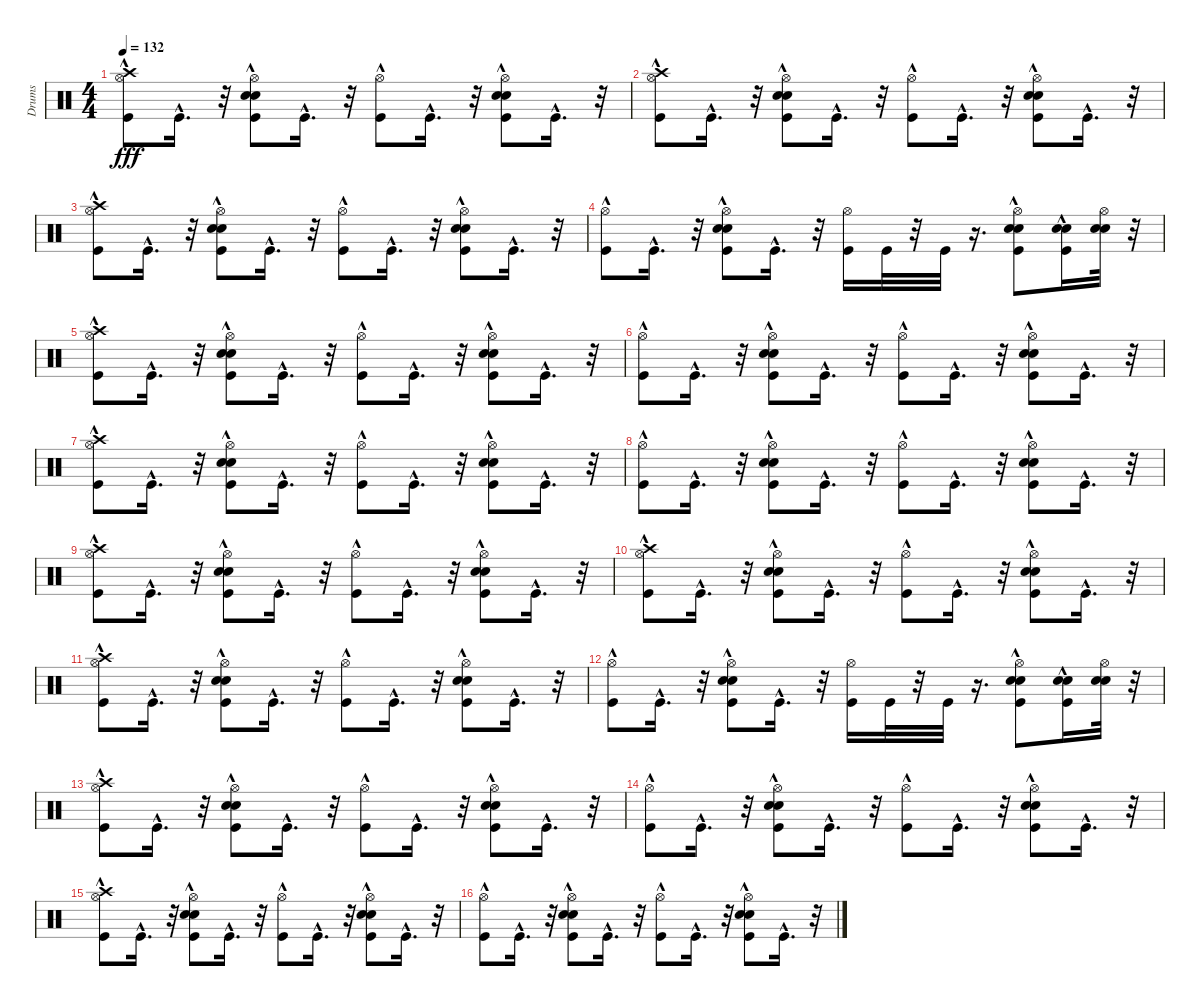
\track ("Drums" "Drums") {instrument percussion}
\staff {score}
\articulation defaults
\ts (4 4)
\tempo 132
\clef neutral
\ks c
("Hi-Hat (open)" "Kick (hit)"{hac} "Crash high (hit)").8{dy fff} "Kick (hit)"{hac}.16{d} r.32 ("Hi-Hat (open)" "Kick (hit)"{hac} "Snare (hit) 2"{hac} "Electric Snare (hit)"{hac}).8 "Kick (hit)"{hac}.16{d} r.32 ("Hi-Hat (open)" "Kick (hit)"{hac}).8 "Kick (hit)"{hac}.16{d} r.32 ("Hi-Hat (open)" "Kick (hit)"{hac} "Snare (hit) 2"{hac} "Electric Snare (hit)"{hac}).8 "Kick (hit)"{hac}.16{d} r.32 |
("Hi-Hat (open)" "Kick (hit)"{hac} "Crash high (hit)"{hac}).8 "Kick (hit)"{hac}.16{d} r.32 ("Hi-Hat (open)" "Kick (hit)"{hac} "Snare (hit) 2"{hac} "Electric Snare (hit)"{hac}).8 "Kick (hit)"{hac}.16{d} r.32 ("Hi-Hat (open)" "Kick (hit)"{hac}).8 "Kick (hit)"{hac}.16{d} r.32 ("Hi-Hat (open)" "Kick (hit)"{hac} "Snare (hit) 2"{hac} "Electric Snare (hit)"{hac}).8 "Kick (hit)"{hac}.16{d} r.32 |
("Hi-Hat (open)" "Kick (hit)"{hac} "Crash high (hit)"{hac}).8 "Kick (hit)"{hac}.16{d} r.32 ("Hi-Hat (open)" "Kick (hit)"{hac} "Snare (hit) 2"{hac} "Electric Snare (hit)"{hac}).8 "Kick (hit)"{hac}.16{d} r.32 ("Hi-Hat (open)" "Kick (hit)"{hac}).8 "Kick (hit)"{hac}.16{d} r.32 ("Hi-Hat (open)" "Kick (hit)"{hac} "Snare (hit) 2"{hac} "Electric Snare (hit)"{hac}).8 "Kick (hit)"{hac}.16{d} r.32 |
("Hi-Hat (open)" "Kick (hit)"{hac}).8 "Kick (hit)"{hac}.16{d} r.32 ("Hi-Hat (open)" "Kick (hit)"{hac} "Snare (hit) 2"{hac} "Electric Snare (hit)"{hac}).8 "Kick (hit)"{hac}.16{d} r.32 ("Hi-Hat (open)" "Kick (hit)").16 "Kick (hit)".32 r.32 "Kick (hit)".32 r.16{d} ("Hi-Hat (open)" "Kick (hit)"{hac} "Snare (hit) 2"{hac} "Electric Snare (hit)"{hac}).8 ("Kick (hit)"{hac} "Snare (hit) 2" "Electric Snare (hit)").16 ("Snare (hit) 2" "Electric Snare (hit)" "Hi-Hat (open)").32 r.32 |
("Hi-Hat (open)" "Kick (hit)"{hac} "Crash high (hit)"{hac}).8 "Kick (hit)"{hac}.16{d} r.32 ("Hi-Hat (open)" "Kick (hit)"{hac} "Snare (hit) 2"{hac} "Electric Snare (hit)"{hac}).8 "Kick (hit)"{hac}.16{d} r.32 ("Hi-Hat (open)" "Kick (hit)"{hac}).8 "Kick (hit)"{hac}.16{d} r.32 ("Hi-Hat (open)" "Kick (hit)"{hac} "Snare (hit) 2"{hac} "Electric Snare (hit)"{hac}).8 "Kick (hit)"{hac}.16{d} r.32 |
("Hi-Hat (open)" "Kick (hit)"{hac}).8 "Kick (hit)"{hac}.16{d} r.32 ("Hi-Hat (open)" "Kick (hit)"{hac} "Snare (hit) 2"{hac} "Electric Snare (hit)"{hac}).8 "Kick (hit)"{hac}.16{d} r.32 ("Hi-Hat (open)" "Kick (hit)"{hac}).8 "Kick (hit)"{hac}.16{d} r.32 ("Hi-Hat (open)" "Kick (hit)"{hac} "Snare (hit) 2"{hac} "Electric Snare (hit)"{hac}).8 "Kick (hit)"{hac}.16{d} r.32 |
("Hi-Hat (open)" "Kick (hit)"{hac} "Crash high (hit)"{hac}).8 "Kick (hit)"{hac}.16{d} r.32 ("Hi-Hat (open)" "Kick (hit)"{hac} "Snare (hit) 2"{hac} "Electric Snare (hit)"{hac}).8 "Kick (hit)"{hac}.16{d} r.32 ("Hi-Hat (open)" "Kick (hit)"{hac}).8 "Kick (hit)"{hac}.16{d} r.32 ("Hi-Hat (open)" "Kick (hit)"{hac} "Snare (hit) 2"{hac} "Electric Snare (hit)"{hac}).8 "Kick (hit)"{hac}.16{d} r.32 |
("Hi-Hat (open)" "Kick (hit)"{hac}).8 "Kick (hit)"{hac}.16{d} r.32 ("Hi-Hat (open)" "Kick (hit)"{hac} "Snare (hit) 2"{hac} "Electric Snare (hit)"{hac}).8 "Kick (hit)"{hac}.16{d} r.32 ("Hi-Hat (open)" "Kick (hit)"{hac}).8 "Kick (hit)"{hac}.16{d} r.32 ("Hi-Hat (open)" "Kick (hit)"{hac} "Snare (hit) 2"{hac} "Electric Snare (hit)"{hac}).8 "Kick (hit)"{hac}.16{d} r.32 |
("Hi-Hat (open)" "Kick (hit)"{hac} "Crash high (hit)").8 "Kick (hit)"{hac}.16{d} r.32 ("Hi-Hat (open)" "Kick (hit)"{hac} "Snare (hit) 2"{hac} "Electric Snare (hit)"{hac}).8 "Kick (hit)"{hac}.16{d} r.32 ("Hi-Hat (open)" "Kick (hit)"{hac}).8 "Kick (hit)"{hac}.16{d} r.32 ("Hi-Hat (open)" "Kick (hit)"{hac} "Snare (hit) 2"{hac} "Electric Snare (hit)"{hac}).8 "Kick (hit)"{hac}.16{d} r.32 |
("Hi-Hat (open)" "Kick (hit)"{hac} "Crash high (hit)"{hac}).8 "Kick (hit)"{hac}.16{d} r.32 ("Hi-Hat (open)" "Kick (hit)"{hac} "Snare (hit) 2"{hac} "Electric Snare (hit)"{hac}).8 "Kick (hit)"{hac}.16{d} r.32 ("Hi-Hat (open)" "Kick (hit)"{hac}).8 "Kick (hit)"{hac}.16{d} r.32 ("Hi-Hat (open)" "Kick (hit)"{hac} "Snare (hit) 2"{hac} "Electric Snare (hit)"{hac}).8 "Kick (hit)"{hac}.16{d} r.32 |
("Hi-Hat (open)" "Kick (hit)"{hac} "Crash high (hit)"{hac}).8 "Kick (hit)"{hac}.16{d} r.32 ("Hi-Hat (open)" "Kick (hit)"{hac} "Snare (hit) 2"{hac} "Electric Snare (hit)"{hac}).8 "Kick (hit)"{hac}.16{d} r.32 ("Hi-Hat (open)" "Kick (hit)"{hac}).8 "Kick (hit)"{hac}.16{d} r.32 ("Hi-Hat (open)" "Kick (hit)"{hac} "Snare (hit) 2"{hac} "Electric Snare (hit)"{hac}).8 "Kick (hit)"{hac}.16{d} r.32 |
("Hi-Hat (open)" "Kick (hit)"{hac}).8 "Kick (hit)"{hac}.16{d} r.32 ("Hi-Hat (open)" "Kick (hit)"{hac} "Snare (hit) 2"{hac} "Electric Snare (hit)"{hac}).8 "Kick (hit)"{hac}.16{d} r.32 ("Hi-Hat (open)" "Kick (hit)").16 "Kick (hit)".32 r.32 "Kick (hit)".32 r.16{d} ("Hi-Hat (open)" "Kick (hit)"{hac} "Snare (hit) 2"{hac} "Electric Snare (hit)"{hac}).8 ("Kick (hit)"{hac} "Snare (hit) 2" "Electric Snare (hit)").16 ("Snare (hit) 2" "Electric Snare (hit)" "Hi-Hat (open)").32 r.32 |
("Hi-Hat (open)" "Kick (hit)"{hac} "Crash high (hit)"{hac}).8 "Kick (hit)"{hac}.16{d} r.32 ("Hi-Hat (open)" "Kick (hit)"{hac} "Snare (hit) 2"{hac} "Electric Snare (hit)"{hac}).8 "Kick (hit)"{hac}.16{d} r.32 ("Hi-Hat (open)" "Kick (hit)"{hac}).8 "Kick (hit)"{hac}.16{d} r.32 ("Hi-Hat (open)" "Kick (hit)"{hac} "Snare (hit) 2"{hac} "Electric Snare (hit)"{hac}).8 "Kick (hit)"{hac}.16{d} r.32 |
("Hi-Hat (open)" "Kick (hit)"{hac}).8 "Kick (hit)"{hac}.16{d} r.32 ("Hi-Hat (open)" "Kick (hit)"{hac} "Snare (hit) 2"{hac} "Electric Snare (hit)"{hac}).8 "Kick (hit)"{hac}.16{d} r.32 ("Hi-Hat (open)" "Kick (hit)"{hac}).8 "Kick (hit)"{hac}.16{d} r.32 ("Hi-Hat (open)" "Kick (hit)"{hac} "Snare (hit) 2"{hac} "Electric Snare (hit)"{hac}).8 "Kick (hit)"{hac}.16{d} r.32 |
("Hi-Hat (open)" "Kick (hit)"{hac} "Crash high (hit)"{hac}).8 "Kick (hit)"{hac}.16{d} r.32 ("Hi-Hat (open)" "Kick (hit)"{hac} "Snare (hit) 2"{hac} "Electric Snare (hit)"{hac}).8 "Kick (hit)"{hac}.16{d} r.32 ("Hi-Hat (open)" "Kick (hit)"{hac}).8 "Kick (hit)"{hac}.16{d} r.32 ("Hi-Hat (open)" "Kick (hit)"{hac} "Snare (hit) 2"{hac} "Electric Snare (hit)"{hac}).8 "Kick (hit)"{hac}.16{d} r.32 |
("Hi-Hat (open)" "Kick (hit)"{hac}).8 "Kick (hit)"{hac}.16{d} r.32 ("Hi-Hat (open)" "Kick (hit)"{hac} "Snare (hit) 2"{hac} "Electric Snare (hit)"{hac}).8 "Kick (hit)"{hac}.16{d} r.32 ("Hi-Hat (open)" "Kick (hit)"{hac}).8 "Kick (hit)"{hac}.16{d} r.32 ("Hi-Hat (open)" "Kick (hit)"{hac} "Snare (hit) 2"{hac} "Electric Snare (hit)"{hac}).8 "Kick (hit)"{hac}.16{d} r.32
